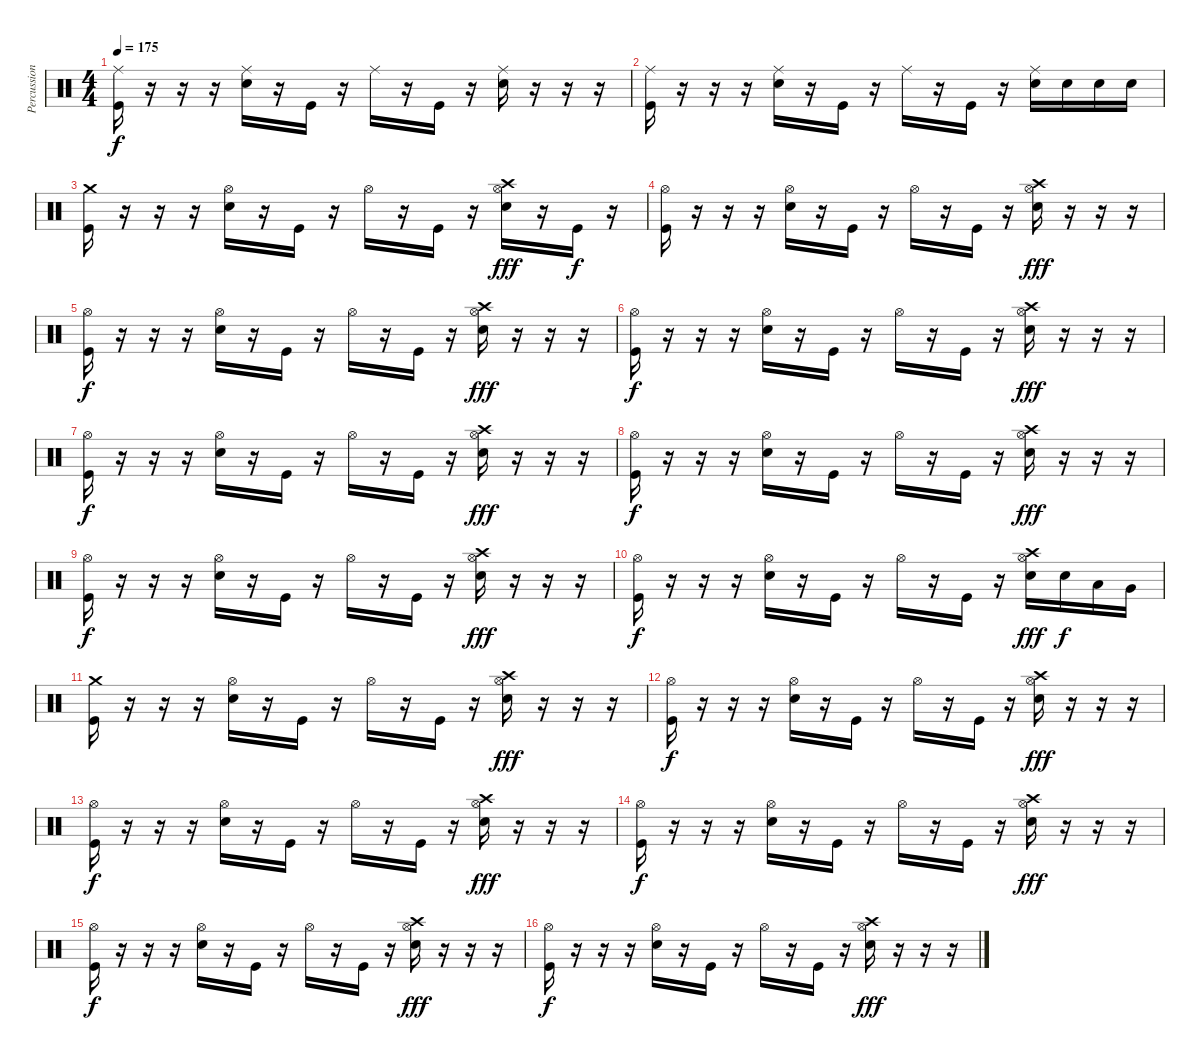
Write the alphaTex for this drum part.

\track ("Percussions" "Percussion") {instrument percussion}
\staff {score}
\articulation defaults
\ts (4 4)
\tempo 175
\clef neutral
\ks c
("Ride (middle)" "Kick (hit)").16{dy f} r.16 r.16 r.16 ("Ride (middle)" "Electric Snare (hit)").16 r.16 "Kick (hit)".16 r.16 "Ride (middle)".16 r.16 "Kick (hit)".16 r.16 ("Ride (middle)" "Electric Snare (hit)").16 r.16 r.16 r.16 |
("Ride (middle)" "Kick (hit)").16 r.16 r.16 r.16 ("Ride (middle)" "Electric Snare (hit)").16 r.16 "Kick (hit)".16 r.16 "Ride (middle)".16 r.16 "Kick (hit)".16 r.16 ("Ride (middle)" "Electric Snare (hit)").16 "Electric Snare (hit)".16 "Electric Snare (hit)".16 "Electric Snare (hit)".16 |
("Crash medium (hit)" "Kick (hit)").16 r.16 r.16 r.16 ("Hi-Hat (open)" "Electric Snare (hit)").16 r.16 "Kick (hit)".16 r.16 "Hi-Hat (open)".16 r.16 "Kick (hit)".16 r.16 ("Hi-Hat (open)" "Crash high (hit)" "Electric Snare (hit)").16{dy fff} r.16 "Kick (hit)".16{dy f} r.16 |
("Hi-Hat (open)" "Kick (hit)").16 r.16 r.16 r.16 ("Hi-Hat (open)" "Electric Snare (hit)").16 r.16 "Kick (hit)".16 r.16 "Hi-Hat (open)".16 r.16 "Kick (hit)".16 r.16 ("Hi-Hat (open)" "Crash high (hit)" "Electric Snare (hit)").16{dy fff} r.16 r.16 r.16 |
("Hi-Hat (open)" "Kick (hit)").16{dy f} r.16 r.16 r.16 ("Hi-Hat (open)" "Electric Snare (hit)").16 r.16 "Kick (hit)".16 r.16 "Hi-Hat (open)".16 r.16 "Kick (hit)".16 r.16 ("Hi-Hat (open)" "Crash high (hit)" "Electric Snare (hit)").16{dy fff} r.16 r.16 r.16 |
("Hi-Hat (open)" "Kick (hit)").16{dy f} r.16 r.16 r.16 ("Hi-Hat (open)" "Electric Snare (hit)").16 r.16 "Kick (hit)".16 r.16 "Hi-Hat (open)".16 r.16 "Kick (hit)".16 r.16 ("Hi-Hat (open)" "Crash high (hit)" "Electric Snare (hit)").16{dy fff} r.16 r.16 r.16 |
("Hi-Hat (open)" "Kick (hit)").16{dy f} r.16 r.16 r.16 ("Hi-Hat (open)" "Electric Snare (hit)").16 r.16 "Kick (hit)".16 r.16 "Hi-Hat (open)".16 r.16 "Kick (hit)".16 r.16 ("Hi-Hat (open)" "Crash high (hit)" "Electric Snare (hit)").16{dy fff} r.16 r.16 r.16 |
("Hi-Hat (open)" "Kick (hit)").16{dy f} r.16 r.16 r.16 ("Hi-Hat (open)" "Electric Snare (hit)").16 r.16 "Kick (hit)".16 r.16 "Hi-Hat (open)".16 r.16 "Kick (hit)".16 r.16 ("Hi-Hat (open)" "Crash high (hit)" "Electric Snare (hit)").16{dy fff} r.16 r.16 r.16 |
("Hi-Hat (open)" "Kick (hit)").16{dy f} r.16 r.16 r.16 ("Hi-Hat (open)" "Electric Snare (hit)").16 r.16 "Kick (hit)".16 r.16 "Hi-Hat (open)".16 r.16 "Kick (hit)".16 r.16 ("Hi-Hat (open)" "Crash high (hit)" "Electric Snare (hit)").16{dy fff} r.16 r.16 r.16 |
("Hi-Hat (open)" "Kick (hit)").16{dy f} r.16 r.16 r.16 ("Hi-Hat (open)" "Electric Snare (hit)").16 r.16 "Kick (hit)".16 r.16 "Hi-Hat (open)".16 r.16 "Kick (hit)".16 r.16 ("Hi-Hat (open)" "Crash high (hit)" "Electric Snare (hit)").16{dy fff} "Electric Snare (hit)".16{dy f} "Low Tom (hit)".16 "Very Low Tom (hit)".16 |
("Crash medium (hit)" "Kick (hit)").16 r.16 r.16 r.16 ("Hi-Hat (open)" "Electric Snare (hit)").16 r.16 "Kick (hit)".16 r.16 "Hi-Hat (open)".16 r.16 "Kick (hit)".16 r.16 ("Hi-Hat (open)" "Crash high (hit)" "Electric Snare (hit)").16{dy fff} r.16 r.16 r.16 |
("Hi-Hat (open)" "Kick (hit)").16{dy f} r.16 r.16 r.16 ("Hi-Hat (open)" "Electric Snare (hit)").16 r.16 "Kick (hit)".16 r.16 "Hi-Hat (open)".16 r.16 "Kick (hit)".16 r.16 ("Hi-Hat (open)" "Crash high (hit)" "Electric Snare (hit)").16{dy fff} r.16 r.16 r.16 |
("Hi-Hat (open)" "Kick (hit)").16{dy f} r.16 r.16 r.16 ("Hi-Hat (open)" "Electric Snare (hit)").16 r.16 "Kick (hit)".16 r.16 "Hi-Hat (open)".16 r.16 "Kick (hit)".16 r.16 ("Hi-Hat (open)" "Crash high (hit)" "Electric Snare (hit)").16{dy fff} r.16 r.16 r.16 |
("Hi-Hat (open)" "Kick (hit)").16{dy f} r.16 r.16 r.16 ("Hi-Hat (open)" "Electric Snare (hit)").16 r.16 "Kick (hit)".16 r.16 "Hi-Hat (open)".16 r.16 "Kick (hit)".16 r.16 ("Hi-Hat (open)" "Crash high (hit)" "Electric Snare (hit)").16{dy fff} r.16 r.16 r.16 |
("Hi-Hat (open)" "Kick (hit)").16{dy f} r.16 r.16 r.16 ("Hi-Hat (open)" "Electric Snare (hit)").16 r.16 "Kick (hit)".16 r.16 "Hi-Hat (open)".16 r.16 "Kick (hit)".16 r.16 ("Hi-Hat (open)" "Crash high (hit)" "Electric Snare (hit)").16{dy fff} r.16 r.16 r.16 |
("Hi-Hat (open)" "Kick (hit)").16{dy f} r.16 r.16 r.16 ("Hi-Hat (open)" "Electric Snare (hit)").16 r.16 "Kick (hit)".16 r.16 "Hi-Hat (open)".16 r.16 "Kick (hit)".16 r.16 ("Hi-Hat (open)" "Crash high (hit)" "Electric Snare (hit)").16{dy fff} r.16 r.16 r.16
